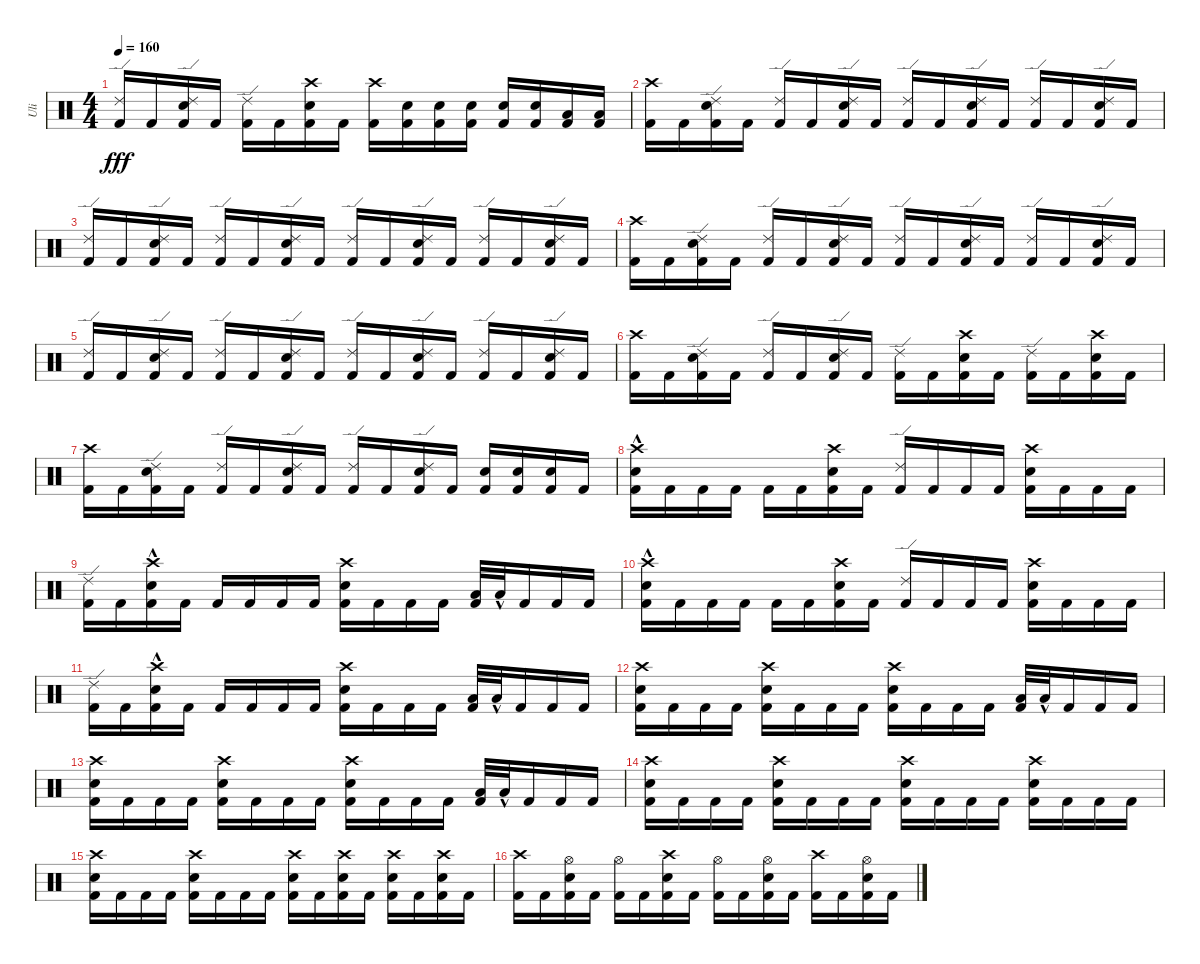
\track ("Uli" "Uli") {instrument percussion}
\staff {score}
\articulation defaults
\ts (4 4)
\tempo 160
\clef neutral
\ks c
("Kick (hit) 2" "Ride (edge) 2").16{dy fff} "Kick (hit) 2".16 ("Kick (hit) 2" "Electric Snare (hit)" "Ride (edge) 2").16 "Kick (hit) 2".16 ("Kick (hit) 2" "Ride (edge) 2").16 "Kick (hit) 2".16 ("Kick (hit) 2" "Electric Snare (hit)" "Crash high (hit)").16 "Kick (hit) 2".16 ("Kick (hit) 2" "Crash high (hit)").16 ("Kick (hit) 2" "Electric Snare (hit)").16 ("Kick (hit) 2" "Electric Snare (hit)").16 ("Kick (hit) 2" "Electric Snare (hit)").16 ("Kick (hit) 2" "Electric Snare (hit)").16 ("Kick (hit) 2" "Electric Snare (hit)").16 ("Kick (hit) 2" "Low Tom (hit)").16 ("Kick (hit) 2" "Low Tom (hit)").16 |
("Kick (hit) 2" "Crash high (hit)").16 "Kick (hit) 2".16 ("Kick (hit) 2" "Electric Snare (hit)" "Ride (edge) 2").16 "Kick (hit) 2".16 ("Kick (hit) 2" "Ride (edge) 2").16 "Kick (hit) 2".16 ("Kick (hit) 2" "Electric Snare (hit)" "Ride (edge) 2").16 "Kick (hit) 2".16 ("Kick (hit) 2" "Ride (edge) 2").16 "Kick (hit) 2".16 ("Kick (hit) 2" "Electric Snare (hit)" "Ride (edge) 2").16 "Kick (hit) 2".16 ("Kick (hit) 2" "Ride (edge) 2").16 "Kick (hit) 2".16 ("Kick (hit) 2" "Electric Snare (hit)" "Ride (edge) 2").16 "Kick (hit) 2".16 |
("Kick (hit) 2" "Ride (edge) 2").16 "Kick (hit) 2".16 ("Kick (hit) 2" "Electric Snare (hit)" "Ride (edge) 2").16 "Kick (hit) 2".16 ("Kick (hit) 2" "Ride (edge) 2").16 "Kick (hit) 2".16 ("Kick (hit) 2" "Electric Snare (hit)" "Ride (edge) 2").16 "Kick (hit) 2".16 ("Kick (hit) 2" "Ride (edge) 2").16 "Kick (hit) 2".16 ("Kick (hit) 2" "Electric Snare (hit)" "Ride (edge) 2").16 "Kick (hit) 2".16 ("Kick (hit) 2" "Ride (edge) 2").16 "Kick (hit) 2".16 ("Kick (hit) 2" "Electric Snare (hit)" "Ride (edge) 2").16 "Kick (hit) 2".16 |
("Kick (hit) 2" "Crash high (hit)").16 "Kick (hit) 2".16 ("Kick (hit) 2" "Electric Snare (hit)" "Ride (edge) 2").16 "Kick (hit) 2".16 ("Kick (hit) 2" "Ride (edge) 2").16 "Kick (hit) 2".16 ("Kick (hit) 2" "Electric Snare (hit)" "Ride (edge) 2").16 "Kick (hit) 2".16 ("Kick (hit) 2" "Ride (edge) 2").16 "Kick (hit) 2".16 ("Kick (hit) 2" "Electric Snare (hit)" "Ride (edge) 2").16 "Kick (hit) 2".16 ("Kick (hit) 2" "Ride (edge) 2").16 "Kick (hit) 2".16 ("Kick (hit) 2" "Electric Snare (hit)" "Ride (edge) 2").16 "Kick (hit) 2".16 |
("Kick (hit) 2" "Ride (edge) 2").16 "Kick (hit) 2".16 ("Kick (hit) 2" "Electric Snare (hit)" "Ride (edge) 2").16 "Kick (hit) 2".16 ("Kick (hit) 2" "Ride (edge) 2").16 "Kick (hit) 2".16 ("Kick (hit) 2" "Electric Snare (hit)" "Ride (edge) 2").16 "Kick (hit) 2".16 ("Kick (hit) 2" "Ride (edge) 2").16 "Kick (hit) 2".16 ("Kick (hit) 2" "Electric Snare (hit)" "Ride (edge) 2").16 "Kick (hit) 2".16 ("Kick (hit) 2" "Ride (edge) 2").16 "Kick (hit) 2".16 ("Kick (hit) 2" "Electric Snare (hit)" "Ride (edge) 2").16 "Kick (hit) 2".16 |
("Kick (hit) 2" "Crash high (hit)").16 "Kick (hit) 2".16 ("Kick (hit) 2" "Electric Snare (hit)" "Ride (edge) 2").16 "Kick (hit) 2".16 ("Kick (hit) 2" "Ride (edge) 2").16 "Kick (hit) 2".16 ("Kick (hit) 2" "Electric Snare (hit)" "Ride (edge) 2").16 "Kick (hit) 2".16 ("Kick (hit) 2" "Ride (edge) 2").16 "Kick (hit) 2".16 ("Kick (hit) 2" "Electric Snare (hit)" "Crash high (hit)").16 "Kick (hit) 2".16 ("Kick (hit) 2" "Ride (edge) 2").16 "Kick (hit) 2".16 ("Kick (hit) 2" "Electric Snare (hit)" "Crash high (hit)").16 "Kick (hit) 2".16 |
("Kick (hit) 2" "Crash high (hit)").16 "Kick (hit) 2".16 ("Kick (hit) 2" "Electric Snare (hit)" "Ride (edge) 2").16 "Kick (hit) 2".16 ("Kick (hit) 2" "Ride (edge) 2").16 "Kick (hit) 2".16 ("Kick (hit) 2" "Electric Snare (hit)" "Ride (edge) 2").16 "Kick (hit) 2".16 ("Kick (hit) 2" "Ride (edge) 2").16 "Kick (hit) 2".16 ("Kick (hit) 2" "Electric Snare (hit)" "Ride (edge) 2").16 "Kick (hit) 2".16 ("Kick (hit) 2" "Electric Snare (hit)").16 ("Kick (hit) 2" "Electric Snare (hit)").16 ("Kick (hit) 2" "Electric Snare (hit)").16 "Kick (hit) 2".16 |
("Kick (hit) 2" "Crash high (hit)" "Electric Snare (hit)"{hac}).16 "Kick (hit) 2".16 "Kick (hit) 2".16 "Kick (hit) 2".16 "Kick (hit) 2".16 "Kick (hit) 2".16 ("Kick (hit) 2" "Crash high (hit)" "Electric Snare (hit)").16 "Kick (hit) 2".16 ("Kick (hit) 2" "Ride (edge) 2").16 "Kick (hit) 2".16 "Kick (hit) 2".16 "Kick (hit) 2".16 ("Kick (hit) 2" "Electric Snare (hit)" "Crash high (hit)").16 "Kick (hit) 2".16 "Kick (hit) 2".16 "Kick (hit) 2".16 |
("Kick (hit) 2" "Ride (edge) 2").16 "Kick (hit) 2".16 ("Kick (hit) 2" "Crash high (hit)"{hac} "Electric Snare (hit)"{hac}).16 "Kick (hit) 2".16 "Kick (hit) 2".16 "Kick (hit) 2".16 "Kick (hit) 2".16 "Kick (hit) 2".16 ("Kick (hit) 2" "Crash high (hit)" "Electric Snare (hit)").16 "Kick (hit) 2".16 "Kick (hit) 2".16 "Kick (hit) 2".16 ("Kick (hit) 2" "Low Floor Tom (hit)").32 "Low Floor Tom (hit)"{hac}.32 "Kick (hit) 2".16 "Kick (hit) 2".16 "Kick (hit) 2".16 |
("Kick (hit) 2" "Crash high (hit)" "Electric Snare (hit)"{hac}).16 "Kick (hit) 2".16 "Kick (hit) 2".16 "Kick (hit) 2".16 "Kick (hit) 2".16 "Kick (hit) 2".16 ("Kick (hit) 2" "Crash high (hit)" "Electric Snare (hit)").16 "Kick (hit) 2".16 ("Kick (hit) 2" "Ride (edge) 2").16 "Kick (hit) 2".16 "Kick (hit) 2".16 "Kick (hit) 2".16 ("Kick (hit) 2" "Electric Snare (hit)" "Crash high (hit)").16 "Kick (hit) 2".16 "Kick (hit) 2".16 "Kick (hit) 2".16 |
("Kick (hit) 2" "Ride (edge) 2").16 "Kick (hit) 2".16 ("Kick (hit) 2" "Crash high (hit)"{hac} "Electric Snare (hit)"{hac}).16 "Kick (hit) 2".16 "Kick (hit) 2".16 "Kick (hit) 2".16 "Kick (hit) 2".16 "Kick (hit) 2".16 ("Kick (hit) 2" "Crash high (hit)" "Electric Snare (hit)").16 "Kick (hit) 2".16 "Kick (hit) 2".16 "Kick (hit) 2".16 ("Kick (hit) 2" "Low Floor Tom (hit)").32 "Low Floor Tom (hit)"{hac}.32 "Kick (hit) 2".16 "Kick (hit) 2".16 "Kick (hit) 2".16 |
("Kick (hit) 2" "Electric Snare (hit)" "Crash high (hit)").16 "Kick (hit) 2".16 "Kick (hit) 2".16 "Kick (hit) 2".16 ("Kick (hit) 2" "Electric Snare (hit)" "Crash high (hit)").16 "Kick (hit) 2".16 "Kick (hit) 2".16 "Kick (hit) 2".16 ("Kick (hit) 2" "Electric Snare (hit)" "Crash high (hit)").16 "Kick (hit) 2".16 "Kick (hit) 2".16 "Kick (hit) 2".16 ("Kick (hit) 2" "Low Floor Tom (hit)").32 "Low Floor Tom (hit)"{hac}.32 "Kick (hit) 2".16 "Kick (hit) 2".16 "Kick (hit) 2".16 |
("Kick (hit) 2" "Electric Snare (hit)" "Crash high (hit)").16 "Kick (hit) 2".16 "Kick (hit) 2".16 "Kick (hit) 2".16 ("Kick (hit) 2" "Electric Snare (hit)" "Crash high (hit)").16 "Kick (hit) 2".16 "Kick (hit) 2".16 "Kick (hit) 2".16 ("Kick (hit) 2" "Electric Snare (hit)" "Crash high (hit)").16 "Kick (hit) 2".16 "Kick (hit) 2".16 "Kick (hit) 2".16 ("Kick (hit) 2" "Low Floor Tom (hit)").32 "Low Floor Tom (hit)"{hac}.32 "Kick (hit) 2".16 "Kick (hit) 2".16 "Kick (hit) 2".16 |
("Kick (hit) 2" "Electric Snare (hit)" "Crash high (hit)").16 "Kick (hit) 2".16 "Kick (hit) 2".16 "Kick (hit) 2".16 ("Kick (hit) 2" "Electric Snare (hit)" "Crash high (hit)").16 "Kick (hit) 2".16 "Kick (hit) 2".16 "Kick (hit) 2".16 ("Kick (hit) 2" "Electric Snare (hit)" "Crash high (hit)").16 "Kick (hit) 2".16 "Kick (hit) 2".16 "Kick (hit) 2".16 ("Kick (hit) 2" "Electric Snare (hit)" "Crash high (hit)").16 "Kick (hit) 2".16 "Kick (hit) 2".16 "Kick (hit) 2".16 |
("Kick (hit) 2" "Electric Snare (hit)" "Crash high (hit)").16 "Kick (hit) 2".16 "Kick (hit) 2".16 "Kick (hit) 2".16 ("Kick (hit) 2" "Electric Snare (hit)" "Crash high (hit)").16 "Kick (hit) 2".16 "Kick (hit) 2".16 "Kick (hit) 2".16 ("Kick (hit) 2" "Crash high (hit)" "Electric Snare (hit)").16 "Kick (hit) 2".16 ("Kick (hit) 2" "Crash high (hit)" "Electric Snare (hit)").16 "Kick (hit) 2".16 ("Kick (hit) 2" "Crash high (hit)" "Electric Snare (hit)").16 "Kick (hit) 2".16 ("Kick (hit) 2" "Crash high (hit)" "Electric Snare (hit)").16 "Kick (hit) 2".16 |
("Kick (hit) 2" "Crash high (hit)").16 "Kick (hit) 2".16 ("Kick (hit) 2" "Electric Snare (hit)" "Hi-Hat (open)").16 "Kick (hit) 2".16 ("Kick (hit) 2" "Hi-Hat (open)").16 "Kick (hit) 2".16 ("Kick (hit) 2" "Electric Snare (hit)" "Crash high (hit)").16 "Kick (hit) 2".16 ("Kick (hit) 2" "Hi-Hat (open)").16 "Kick (hit) 2".16 ("Kick (hit) 2" "Electric Snare (hit)" "Hi-Hat (open)").16 "Kick (hit) 2".16 ("Kick (hit) 2" "Crash high (hit)").16 "Kick (hit) 2".16 ("Kick (hit) 2" "Electric Snare (hit)" "Hi-Hat (open)").16 "Kick (hit) 2".16
